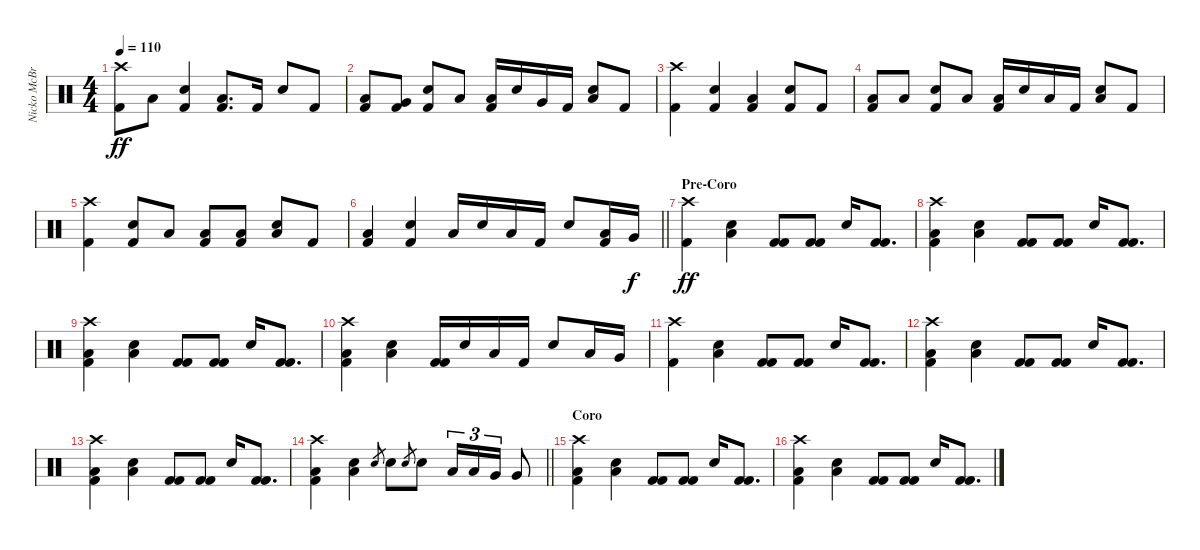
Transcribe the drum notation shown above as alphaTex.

\track ("Nicko McBrain" "Nicko McBr") {instrument percussion}
\staff {score}
\articulation defaults
\ts (4 4)
\tempo 110
\clef neutral
\ks c
("Crash high (hit)" "Kick (hit) 2").8{dy ff} "Low Floor Tom (hit)".8 ("Snare (hit) 2" "Kick (hit) 2").4 ("Low Floor Tom (hit)" "Kick (hit) 2").8{d} "Kick (hit) 2".16 "Snare (hit) 2".8 "Kick (hit) 2".8 |
("Low Floor Tom (hit)" "Kick (hit) 2").8 ("Very Low Tom (hit)" "Kick (hit) 2").8 ("Snare (hit) 2" "Kick (hit) 2").8 "Low Floor Tom (hit)".8 ("Low Floor Tom (hit)" "Kick (hit) 2").16 "Snare (hit) 2".16 "Very Low Tom (hit)".16 "Kick (hit) 2".16 ("Snare (hit) 2" "Low Floor Tom (hit)").8 "Kick (hit) 2".8 |
("Kick (hit) 2" "Crash high (hit)").4 ("Snare (hit) 2" "Kick (hit) 2").4 ("Kick (hit) 2" "Low Floor Tom (hit)").4 ("Snare (hit) 2" "Kick (hit) 2").8 "Kick (hit) 2".8 |
("Kick (hit) 2" "Low Floor Tom (hit)").8 "Low Floor Tom (hit)".8 ("Snare (hit) 2" "Kick (hit) 2").8 "Low Floor Tom (hit)".8 ("Low Floor Tom (hit)" "Kick (hit) 2").16 "Snare (hit) 2".16 "Low Floor Tom (hit)".16 "Kick (hit) 2".16 ("Snare (hit) 2" "Low Floor Tom (hit)").8 "Kick (hit) 2".8 |
("Kick (hit) 2" "Crash high (hit)").4 ("Snare (hit) 2" "Kick (hit) 2").8 "Low Floor Tom (hit)".8 ("Low Tom (hit)" "Kick (hit) 2").8 ("Low Floor Tom (hit)" "Kick (hit) 2").8 ("Snare (hit) 2" "Low Floor Tom (hit)").8 "Kick (hit) 2".8 |
\barLineRight lightlight
("Kick (hit) 2" "Low Floor Tom (hit)").4 ("Snare (hit) 2" "Kick (hit) 2").4 "Low Floor Tom (hit)".16 "Snare (hit) 2".16 "Low Floor Tom (hit)".16 "Kick (hit) 2".16 "Snare (hit) 2".8 ("Low Tom (hit)" "Kick (hit) 2").16 "Very Low Tom (hit)".16{dy f} |
\section ("" "Pre-Coro")
("Crash high (hit)" "Kick (hit) 2").4{dy ff} ("Snare (hit) 2" "Low Floor Tom (hit)").4 ("Kick (hit) 2" "Kick (hit) 2").8 ("Kick (hit) 2" "Kick (hit) 2").8 "Snare (hit) 2".16 ("Kick (hit) 2" "Kick (hit) 2").8{d} |
("Crash high (hit)" "Low Floor Tom (hit)" "Kick (hit) 2").4 ("Snare (hit) 2" "Low Floor Tom (hit)").4 ("Kick (hit) 2" "Kick (hit) 2").8 ("Kick (hit) 2" "Kick (hit) 2").8 "Snare (hit) 2".16 ("Kick (hit) 2" "Kick (hit) 2").8{d} |
("Crash high (hit)" "Low Floor Tom (hit)" "Kick (hit) 2").4 ("Snare (hit) 2" "Low Floor Tom (hit)").4 ("Kick (hit) 2" "Kick (hit) 2").8 ("Kick (hit) 2" "Kick (hit) 2").8 "Snare (hit) 2".16 ("Kick (hit) 2" "Kick (hit) 2").8{d} |
("Crash high (hit)" "Low Floor Tom (hit)" "Kick (hit) 2").4 ("Snare (hit) 2" "Low Floor Tom (hit)").4 ("Kick (hit) 2" "Kick (hit) 2").16 "Snare (hit) 2".16 "Low Floor Tom (hit)".16 "Kick (hit) 2".16 "Snare (hit) 2".8 "Low Tom (hit)".16 "Very Low Tom (hit)".16 |
("Crash high (hit)" "Kick (hit) 2").4 ("Snare (hit) 2" "Low Floor Tom (hit)").4 ("Kick (hit) 2" "Kick (hit) 2").8 ("Kick (hit) 2" "Kick (hit) 2").8 "Snare (hit) 2".16 ("Kick (hit) 2" "Kick (hit) 2").8{d} |
("Crash high (hit)" "Low Floor Tom (hit)" "Kick (hit) 2").4 ("Snare (hit) 2" "Low Floor Tom (hit)").4 ("Kick (hit) 2" "Kick (hit) 2").8 ("Kick (hit) 2" "Kick (hit) 2").8 "Snare (hit) 2".16 ("Kick (hit) 2" "Kick (hit) 2").8{d} |
("Crash high (hit)" "Low Floor Tom (hit)" "Kick (hit) 2").4 ("Snare (hit) 2" "Low Floor Tom (hit)").4 ("Kick (hit) 2" "Kick (hit) 2").8 ("Kick (hit) 2" "Kick (hit) 2").8 "Snare (hit) 2".16 ("Kick (hit) 2" "Kick (hit) 2").8{d} |
\barLineRight lightlight
("Crash high (hit)" "Low Floor Tom (hit)" "Kick (hit) 2").4 ("Snare (hit) 2" "Low Floor Tom (hit)").4 "Snare (hit) 2".8{gr} "Snare (hit) 2".8 "Snare (hit) 2".8{gr} "Snare (hit) 2".8 "Low Tom (hit)".16{tu (3 2)} "Low Tom (hit)".16{tu (3 2)} "Very Low Tom (hit)".16{tu (3 2)} "Very Low Tom (hit)".8 |
\section ("" "Coro")
("Crash high (hit)" "Low Floor Tom (hit)" "Kick (hit) 2").4 ("Snare (hit) 2" "Low Floor Tom (hit)").4 ("Kick (hit) 2" "Kick (hit) 2").8 ("Kick (hit) 2" "Kick (hit) 2").8 "Snare (hit) 2".16 ("Kick (hit) 2" "Kick (hit) 2").8{d} |
("Crash high (hit)" "Low Floor Tom (hit)" "Kick (hit) 2").4 ("Snare (hit) 2" "Low Floor Tom (hit)").4 ("Kick (hit) 2" "Kick (hit) 2").8 ("Kick (hit) 2" "Kick (hit) 2").8 "Snare (hit) 2".16 ("Kick (hit) 2" "Kick (hit) 2").8{d}
